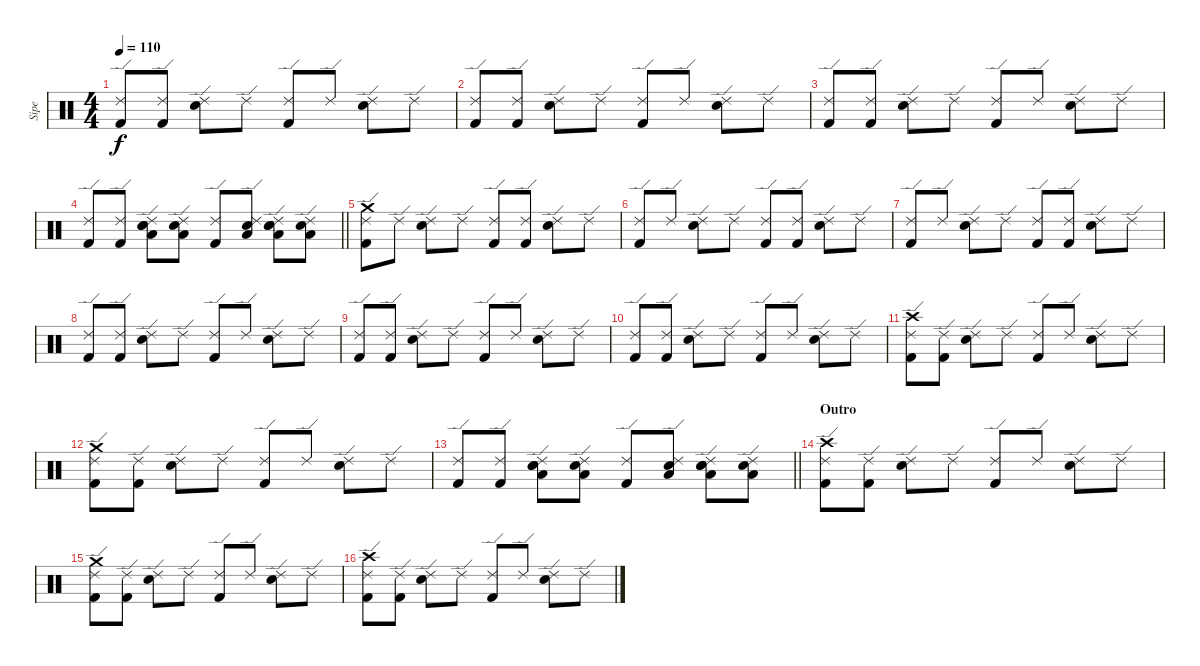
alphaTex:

\track ("Sipe" "Sipe") {instrument percussion}
\staff {score}
\articulation defaults
\ts (4 4)
\tempo 110
\clef neutral
\ks c
("Ride (edge) 2" "Kick (hit) 2").8{dy f} ("Ride (edge) 2" "Kick (hit) 2").8 ("Ride (edge) 2" "Snare (hit) 2").8 "Ride (edge) 2".8 ("Ride (edge) 2" "Kick (hit) 2").8 "Ride (edge) 2".8 ("Ride (edge) 2" "Snare (hit) 2").8 "Ride (edge) 2".8 |
("Ride (edge) 2" "Kick (hit) 2").8 ("Ride (edge) 2" "Kick (hit) 2").8 ("Ride (edge) 2" "Snare (hit) 2").8 "Ride (edge) 2".8 ("Ride (edge) 2" "Kick (hit) 2").8 "Ride (edge) 2".8 ("Ride (edge) 2" "Snare (hit) 2").8 "Ride (edge) 2".8 |
("Ride (edge) 2" "Kick (hit) 2").8 ("Ride (edge) 2" "Kick (hit) 2").8 ("Ride (edge) 2" "Snare (hit) 2").8 "Ride (edge) 2".8 ("Ride (edge) 2" "Kick (hit) 2").8 "Ride (edge) 2".8 ("Ride (edge) 2" "Snare (hit) 2").8 "Ride (edge) 2".8 |
\barLineRight lightlight
("Ride (edge) 2" "Kick (hit) 2").8 ("Ride (edge) 2" "Kick (hit) 2").8 ("Ride (edge) 2" "Snare (hit) 2" "Snare (hit) 2" "Low Tom (hit)").8 ("Ride (edge) 2" "Snare (hit) 2" "Low Tom (hit)").8 ("Ride (edge) 2" "Kick (hit) 2").8 ("Ride (edge) 2" "Snare (hit) 2" "Low Tom (hit)").8 ("Ride (edge) 2" "Snare (hit) 2" "Snare (hit) 2" "Low Tom (hit)").8 ("Ride (edge) 2" "Snare (hit) 2" "Low Tom (hit)").8 |
("Ride (edge) 2" "Kick (hit) 2" "Crash medium (hit)").8 "Ride (edge) 2".8 ("Ride (edge) 2" "Snare (hit) 2").8 "Ride (edge) 2".8 ("Ride (edge) 2" "Kick (hit) 2").8 ("Ride (edge) 2" "Kick (hit) 2").8 ("Ride (edge) 2" "Snare (hit) 2").8 "Ride (edge) 2".8 |
("Ride (edge) 2" "Kick (hit) 2").8 "Ride (edge) 2".8 ("Ride (edge) 2" "Snare (hit) 2").8 "Ride (edge) 2".8 ("Ride (edge) 2" "Kick (hit) 2").8 ("Ride (edge) 2" "Kick (hit) 2").8 ("Ride (edge) 2" "Snare (hit) 2").8 "Ride (edge) 2".8 |
("Ride (edge) 2" "Kick (hit) 2").8 "Ride (edge) 2".8 ("Ride (edge) 2" "Snare (hit) 2").8 "Ride (edge) 2".8 ("Ride (edge) 2" "Kick (hit) 2").8 ("Ride (edge) 2" "Kick (hit) 2").8 ("Ride (edge) 2" "Snare (hit) 2").8 "Ride (edge) 2".8 |
("Ride (edge) 2" "Kick (hit) 2").8 ("Ride (edge) 2" "Kick (hit) 2").8 ("Ride (edge) 2" "Snare (hit) 2").8 "Ride (edge) 2".8 ("Ride (edge) 2" "Kick (hit) 2").8 "Ride (edge) 2".8 ("Ride (edge) 2" "Snare (hit) 2").8 "Ride (edge) 2".8 |
("Ride (edge) 2" "Kick (hit) 2").8 ("Ride (edge) 2" "Kick (hit) 2").8 ("Ride (edge) 2" "Snare (hit) 2").8 "Ride (edge) 2".8 ("Ride (edge) 2" "Kick (hit) 2").8 "Ride (edge) 2".8 ("Ride (edge) 2" "Snare (hit) 2").8 "Ride (edge) 2".8 |
("Ride (edge) 2" "Kick (hit) 2").8 ("Ride (edge) 2" "Kick (hit) 2").8 ("Ride (edge) 2" "Snare (hit) 2").8 "Ride (edge) 2".8 ("Ride (edge) 2" "Kick (hit) 2").8 "Ride (edge) 2".8 ("Ride (edge) 2" "Snare (hit) 2").8 "Ride (edge) 2".8 |
("Ride (edge) 2" "Kick (hit) 2" "Crash high (hit)").8 ("Ride (edge) 2" "Kick (hit) 2").8 ("Ride (edge) 2" "Snare (hit) 2").8 "Ride (edge) 2".8 ("Ride (edge) 2" "Kick (hit) 2").8 "Ride (edge) 2".8 ("Ride (edge) 2" "Snare (hit) 2").8 "Ride (edge) 2".8 |
("Ride (edge) 2" "Kick (hit) 2" "Crash medium (hit)").8 ("Ride (edge) 2" "Kick (hit) 2").8 ("Ride (edge) 2" "Snare (hit) 2").8 "Ride (edge) 2".8 ("Ride (edge) 2" "Kick (hit) 2").8 "Ride (edge) 2".8 ("Ride (edge) 2" "Snare (hit) 2").8 "Ride (edge) 2".8 |
\barLineRight lightlight
("Ride (edge) 2" "Kick (hit) 2").8 ("Ride (edge) 2" "Kick (hit) 2").8 ("Ride (edge) 2" "Snare (hit) 2" "Snare (hit) 2" "Low Tom (hit)").8 ("Ride (edge) 2" "Snare (hit) 2" "Low Tom (hit)").8 ("Ride (edge) 2" "Kick (hit) 2").8 ("Ride (edge) 2" "Snare (hit) 2" "Low Tom (hit)").8 ("Ride (edge) 2" "Snare (hit) 2" "Snare (hit) 2" "Low Tom (hit)").8 ("Ride (edge) 2" "Snare (hit) 2" "Low Tom (hit)").8 |
\section ("" "Outro")
("Ride (edge) 2" "Kick (hit) 2" "Crash high (hit)").8 ("Ride (edge) 2" "Kick (hit) 2").8 ("Ride (edge) 2" "Snare (hit) 2").8 "Ride (edge) 2".8 ("Ride (edge) 2" "Kick (hit) 2").8 "Ride (edge) 2".8 ("Ride (edge) 2" "Snare (hit) 2").8 "Ride (edge) 2".8 |
("Ride (edge) 2" "Kick (hit) 2" "Crash medium (hit)").8 ("Ride (edge) 2" "Kick (hit) 2").8 ("Ride (edge) 2" "Snare (hit) 2").8 "Ride (edge) 2".8 ("Ride (edge) 2" "Kick (hit) 2").8 "Ride (edge) 2".8 ("Ride (edge) 2" "Snare (hit) 2").8 "Ride (edge) 2".8 |
("Ride (edge) 2" "Kick (hit) 2" "Crash high (hit)").8 ("Ride (edge) 2" "Kick (hit) 2").8 ("Ride (edge) 2" "Snare (hit) 2").8 "Ride (edge) 2".8 ("Ride (edge) 2" "Kick (hit) 2").8 "Ride (edge) 2".8 ("Ride (edge) 2" "Snare (hit) 2").8 "Ride (edge) 2".8
